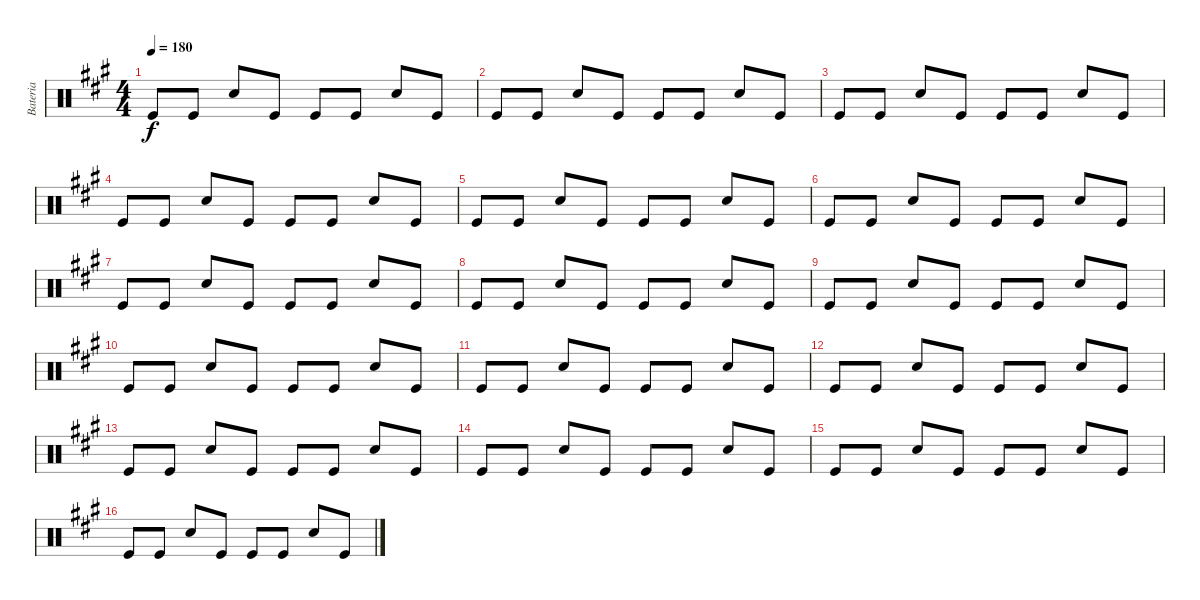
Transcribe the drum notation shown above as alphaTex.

\track ("Bateria" "Bateria") {instrument percussion}
\staff {score}
\articulation defaults
\ts (4 4)
\tempo 180
\clef neutral
\ks a "Kick (hit)".8{dy f} "Kick (hit)".8 "Electric Snare (hit)".8 "Kick (hit)".8 "Kick (hit)".8 "Kick (hit)".8 "Electric Snare (hit)".8 "Kick (hit)".8
|
"Kick (hit)".8 "Kick (hit)".8 "Electric Snare (hit)".8 "Kick (hit)".8 "Kick (hit)".8 "Kick (hit)".8 "Electric Snare (hit)".8 "Kick (hit)".8 |
"Kick (hit)".8 "Kick (hit)".8 "Electric Snare (hit)".8 "Kick (hit)".8 "Kick (hit)".8 "Kick (hit)".8 "Electric Snare (hit)".8 "Kick (hit)".8 |
"Kick (hit)".8 "Kick (hit)".8 "Electric Snare (hit)".8 "Kick (hit)".8 "Kick (hit)".8 "Kick (hit)".8 "Electric Snare (hit)".8 "Kick (hit)".8 |
"Kick (hit)".8 "Kick (hit)".8 "Electric Snare (hit)".8 "Kick (hit)".8 "Kick (hit)".8 "Kick (hit)".8 "Electric Snare (hit)".8 "Kick (hit)".8 |
"Kick (hit)".8 "Kick (hit)".8 "Electric Snare (hit)".8 "Kick (hit)".8 "Kick (hit)".8 "Kick (hit)".8 "Electric Snare (hit)".8 "Kick (hit)".8 |
"Kick (hit)".8 "Kick (hit)".8 "Electric Snare (hit)".8 "Kick (hit)".8 "Kick (hit)".8 "Kick (hit)".8 "Electric Snare (hit)".8 "Kick (hit)".8 |
"Kick (hit)".8 "Kick (hit)".8 "Electric Snare (hit)".8 "Kick (hit)".8 "Kick (hit)".8 "Kick (hit)".8 "Electric Snare (hit)".8 "Kick (hit)".8 |
"Kick (hit)".8 "Kick (hit)".8 "Electric Snare (hit)".8 "Kick (hit)".8 "Kick (hit)".8 "Kick (hit)".8 "Electric Snare (hit)".8 "Kick (hit)".8 |
"Kick (hit)".8 "Kick (hit)".8 "Electric Snare (hit)".8 "Kick (hit)".8 "Kick (hit)".8 "Kick (hit)".8 "Electric Snare (hit)".8 "Kick (hit)".8 |
"Kick (hit)".8 "Kick (hit)".8 "Electric Snare (hit)".8 "Kick (hit)".8 "Kick (hit)".8 "Kick (hit)".8 "Electric Snare (hit)".8 "Kick (hit)".8 |
"Kick (hit)".8 "Kick (hit)".8 "Electric Snare (hit)".8 "Kick (hit)".8 "Kick (hit)".8 "Kick (hit)".8 "Electric Snare (hit)".8 "Kick (hit)".8 |
"Kick (hit)".8 "Kick (hit)".8 "Electric Snare (hit)".8 "Kick (hit)".8 "Kick (hit)".8 "Kick (hit)".8 "Electric Snare (hit)".8 "Kick (hit)".8 |
"Kick (hit)".8 "Kick (hit)".8 "Electric Snare (hit)".8 "Kick (hit)".8 "Kick (hit)".8 "Kick (hit)".8 "Electric Snare (hit)".8 "Kick (hit)".8 |
"Kick (hit)".8 "Kick (hit)".8 "Electric Snare (hit)".8 "Kick (hit)".8 "Kick (hit)".8 "Kick (hit)".8 "Electric Snare (hit)".8 "Kick (hit)".8 |
"Kick (hit)".8 "Kick (hit)".8 "Electric Snare (hit)".8 "Kick (hit)".8 "Kick (hit)".8 "Kick (hit)".8 "Electric Snare (hit)".8 "Kick (hit)".8
